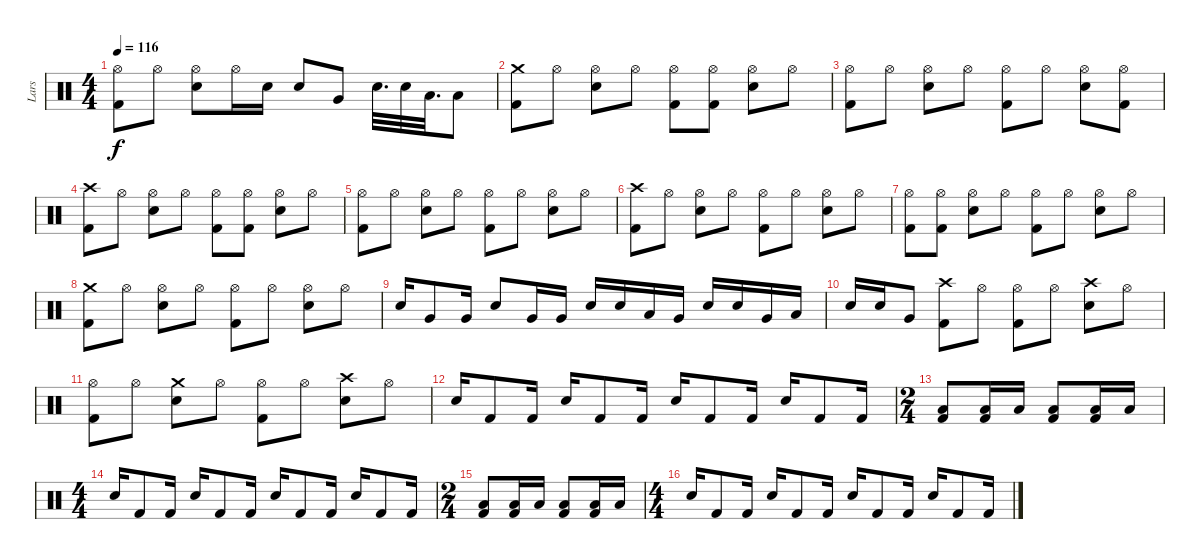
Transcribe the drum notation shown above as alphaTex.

\track ("Lars" "Lars") {instrument percussion}
\staff {score}
\articulation defaults
\ts (4 4)
\tempo 116
\clef neutral
\ks c
("Kick (hit) 2" "Hi-Hat (open)").8{dy f} "Hi-Hat (open)".8 ("Snare (hit) 2" "Hi-Hat (open)").8 "Hi-Hat (open)".16 "Snare (hit) 2".16 "Snare (hit) 2".8 "Very Low Tom (hit)".8 "Snare (hit) 2".32{d} "Snare (hit) 2".32 "Low Tom (hit)".32{d} "Low Floor Tom (hit)".8 |
("Crash medium (hit)" "Kick (hit) 2").8 "Hi-Hat (open)".8 ("Hi-Hat (open)" "Snare (hit) 2").8 "Hi-Hat (open)".8 ("Kick (hit) 2" "Hi-Hat (open)").8 ("Kick (hit) 2" "Hi-Hat (open)").8 ("Snare (hit) 2" "Hi-Hat (open)").8 "Hi-Hat (open)".8 |
("Kick (hit) 2" "Hi-Hat (open)").8 "Hi-Hat (open)".8 ("Snare (hit) 2" "Hi-Hat (open)").8 "Hi-Hat (open)".8 ("Kick (hit) 2" "Hi-Hat (open)").8 "Hi-Hat (open)".8 ("Snare (hit) 2" "Hi-Hat (open)").8 ("Kick (hit) 2" "Hi-Hat (open)").8 |
("Crash high (hit)" "Kick (hit) 2").8 "Hi-Hat (open)".8 ("Snare (hit) 2" "Hi-Hat (open)").8 "Hi-Hat (open)".8 ("Hi-Hat (open)" "Kick (hit) 2").8 ("Hi-Hat (open)" "Kick (hit) 2").8 ("Hi-Hat (open)" "Snare (hit) 2").8 "Hi-Hat (open)".8 |
("Kick (hit) 2" "Hi-Hat (open)").8 "Hi-Hat (open)".8 ("Hi-Hat (open)" "Snare (hit) 2").8 "Hi-Hat (open)".8 ("Hi-Hat (open)" "Kick (hit) 2").8 "Hi-Hat (open)".8 ("Snare (hit) 2" "Hi-Hat (open)").8 "Hi-Hat (open)".8 |
("Crash high (hit)" "Kick (hit) 2").8 "Hi-Hat (open)".8 ("Snare (hit) 2" "Hi-Hat (open)").8 "Hi-Hat (open)".8 ("Hi-Hat (open)" "Kick (hit) 2").8 "Hi-Hat (open)".8 ("Snare (hit) 2" "Hi-Hat (open)").8 "Hi-Hat (open)".8 |
("Kick (hit) 2" "Hi-Hat (open)").8 ("Kick (hit) 2" "Hi-Hat (open)").8 ("Snare (hit) 2" "Hi-Hat (open)").8 "Hi-Hat (open)".8 ("Hi-Hat (open)" "Kick (hit) 2").8 "Hi-Hat (open)".8 ("Hi-Hat (open)" "Snare (hit) 2").8 "Hi-Hat (open)".8 |
("Crash medium (hit)" "Kick (hit) 2").8 "Hi-Hat (open)".8 ("Snare (hit) 2" "Hi-Hat (open)").8 "Hi-Hat (open)".8 ("Kick (hit) 2" "Hi-Hat (open)").8 "Hi-Hat (open)".8 ("Snare (hit) 2" "Hi-Hat (open)").8 "Hi-Hat (open)".8 |
"Snare (hit) 2".16 "Very Low Tom (hit)".8 "Very Low Tom (hit)".16 "Snare (hit) 2".8 "Very Low Tom (hit)".16 "Very Low Tom (hit)".16 "Snare (hit) 2".16 "Snare (hit) 2".16 "Low Tom (hit)".16 "Very Low Tom (hit)".16 "Snare (hit) 2".16 "Snare (hit) 2".16 "Very Low Tom (hit)".16 "Low Floor Tom (hit)".16 |
"Snare (hit) 2".16 "Snare (hit) 2".16 "Very Low Tom (hit)".8 ("Crash high (hit)" "Kick (hit) 2").8 "Hi-Hat (open)".8 ("Kick (hit) 2" "Hi-Hat (open)").8 "Hi-Hat (open)".8 ("Snare (hit) 2" "Crash high (hit)").8 "Hi-Hat (open)".8 |
("Hi-Hat (open)" "Kick (hit) 2").8 "Hi-Hat (open)".8 ("Snare (hit) 2" "Crash medium (hit)").8 "Hi-Hat (open)".8 ("Kick (hit) 2" "Hi-Hat (open)").8 "Hi-Hat (open)".8 ("Crash high (hit)" "Snare (hit) 2").8 "Hi-Hat (open)".8 |
"Snare (hit) 2".16 "Kick (hit) 2".8 "Kick (hit) 2".16 "Snare (hit) 2".16 "Kick (hit) 2".8 "Kick (hit) 2".16 "Snare (hit) 2".16 "Kick (hit) 2".8 "Kick (hit) 2".16 "Snare (hit) 2".16 "Kick (hit) 2".8 "Kick (hit) 2".16 |
\ts (2 4)
("Low Floor Tom (hit)" "Kick (hit) 2").8 ("Kick (hit) 2" "Low Floor Tom (hit)").16 "Low Floor Tom (hit)".16 ("Low Floor Tom (hit)" "Kick (hit) 2").8 ("Kick (hit) 2" "Low Floor Tom (hit)").16 "Low Floor Tom (hit)".16 |
\ts (4 4)
"Snare (hit) 2".16 "Kick (hit) 2".8 "Kick (hit) 2".16 "Snare (hit) 2".16 "Kick (hit) 2".8 "Kick (hit) 2".16 "Snare (hit) 2".16 "Kick (hit) 2".8 "Kick (hit) 2".16 "Snare (hit) 2".16 "Kick (hit) 2".8 "Kick (hit) 2".16 |
\ts (2 4)
("Low Floor Tom (hit)" "Kick (hit) 2").8 ("Kick (hit) 2" "Low Floor Tom (hit)").16 "Low Floor Tom (hit)".16 ("Low Floor Tom (hit)" "Kick (hit) 2").8 ("Kick (hit) 2" "Low Floor Tom (hit)").16 "Low Floor Tom (hit)".16 |
\ts (4 4)
"Snare (hit) 2".16 "Kick (hit) 2".8 "Kick (hit) 2".16 "Snare (hit) 2".16 "Kick (hit) 2".8 "Kick (hit) 2".16 "Snare (hit) 2".16 "Kick (hit) 2".8 "Kick (hit) 2".16 "Snare (hit) 2".16 "Kick (hit) 2".8 "Kick (hit) 2".16
